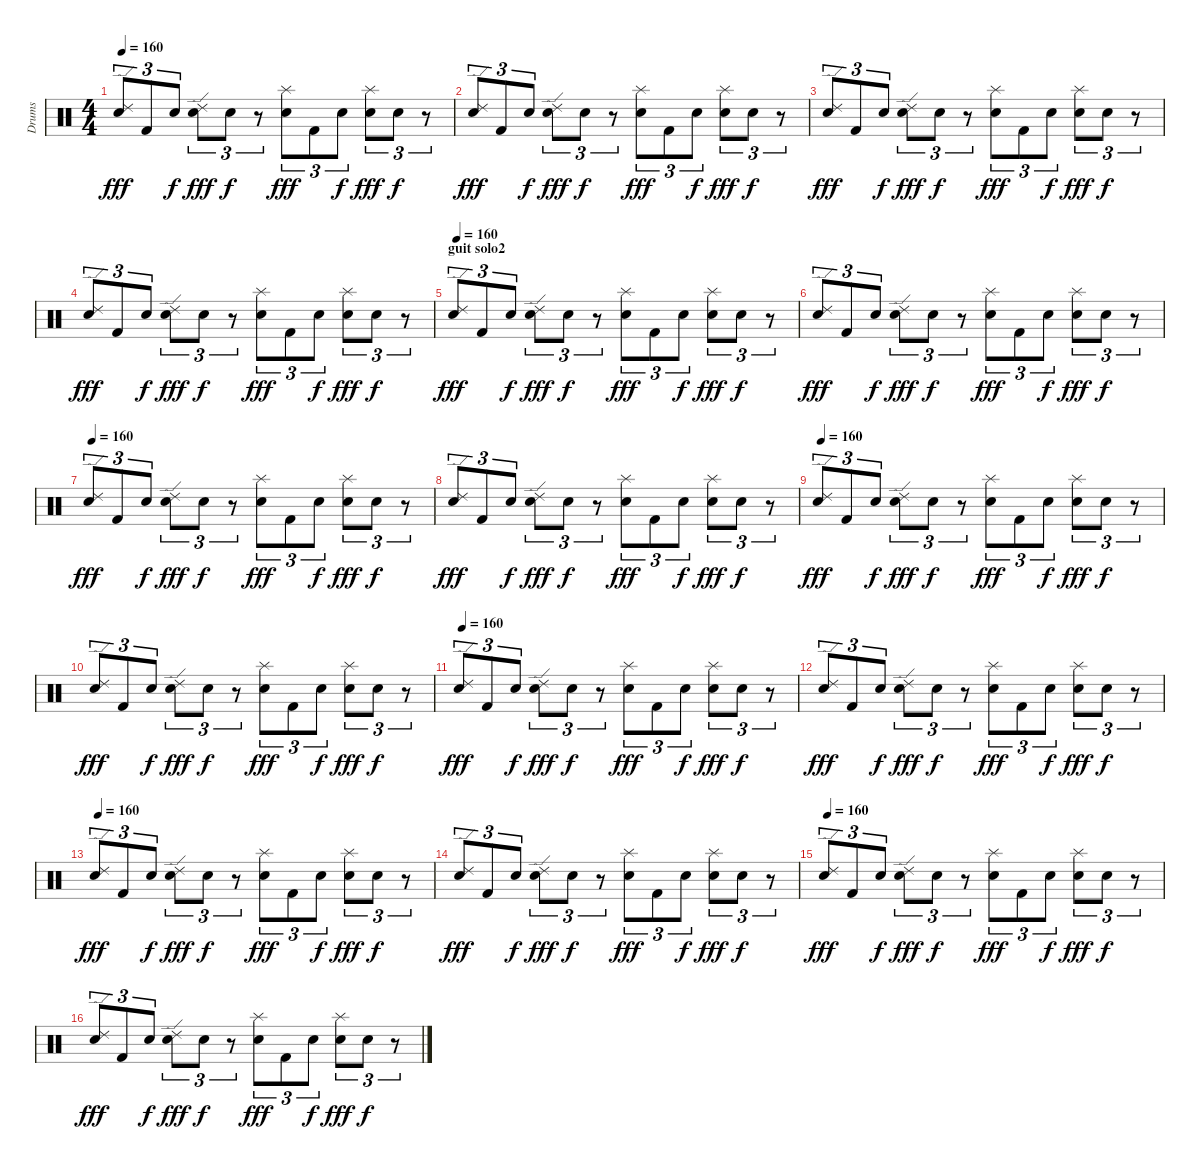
\track ("Drums" "Drums") {instrument percussion}
\staff {score}
\articulation defaults
\ts (4 4)
\tempo 160
\clef neutral
\ks c
("Ride (edge) 2" "Electric Snare (hit)").8{tu (3 2) dy fff} "Kick (hit) 2".8{tu (3 2)} "Electric Snare (hit)".8{tu (3 2) dy f} ("Ride (edge) 2" "Electric Snare (hit)").8{tu (3 2) dy fff} "Electric Snare (hit)".8{tu (3 2) dy f} r.8{tu (3 2)} ("Splash (hit)" "Snare (hit) 2").8{tu (3 2) dy fff} "Kick (hit) 2".8{tu (3 2)} "Snare (hit) 2".8{tu (3 2) dy f} ("Splash (hit)" "Snare (hit) 2").8{tu (3 2) dy fff} "Snare (hit) 2".8{tu (3 2) dy f} r.8{tu (3 2)} |
("Ride (edge) 2" "Electric Snare (hit)").8{tu (3 2) dy fff} "Kick (hit) 2".8{tu (3 2)} "Electric Snare (hit)".8{tu (3 2) dy f} ("Ride (edge) 2" "Electric Snare (hit)").8{tu (3 2) dy fff} "Electric Snare (hit)".8{tu (3 2) dy f} r.8{tu (3 2)} ("Splash (hit)" "Snare (hit) 2").8{tu (3 2) dy fff} "Kick (hit) 2".8{tu (3 2)} "Snare (hit) 2".8{tu (3 2) dy f} ("Splash (hit)" "Snare (hit) 2").8{tu (3 2) dy fff} "Snare (hit) 2".8{tu (3 2) dy f} r.8{tu (3 2)} |
("Ride (edge) 2" "Electric Snare (hit)").8{tu (3 2) dy fff} "Kick (hit) 2".8{tu (3 2)} "Electric Snare (hit)".8{tu (3 2) dy f} ("Ride (edge) 2" "Electric Snare (hit)").8{tu (3 2) dy fff} "Electric Snare (hit)".8{tu (3 2) dy f} r.8{tu (3 2)} ("Splash (hit)" "Snare (hit) 2").8{tu (3 2) dy fff} "Kick (hit) 2".8{tu (3 2)} "Snare (hit) 2".8{tu (3 2) dy f} ("Splash (hit)" "Snare (hit) 2").8{tu (3 2) dy fff} "Snare (hit) 2".8{tu (3 2) dy f} r.8{tu (3 2)} |
("Ride (edge) 2" "Electric Snare (hit)").8{tu (3 2) dy fff} "Kick (hit) 2".8{tu (3 2)} "Electric Snare (hit)".8{tu (3 2) dy f} ("Ride (edge) 2" "Electric Snare (hit)").8{tu (3 2) dy fff} "Electric Snare (hit)".8{tu (3 2) dy f} r.8{tu (3 2)} ("Splash (hit)" "Snare (hit) 2").8{tu (3 2) dy fff} "Kick (hit) 2".8{tu (3 2)} "Snare (hit) 2".8{tu (3 2) dy f} ("Splash (hit)" "Snare (hit) 2").8{tu (3 2) dy fff} "Snare (hit) 2".8{tu (3 2) dy f} r.8{tu (3 2)} |
\section ("" "guit solo2")
\tempo 160
("Ride (edge) 2" "Electric Snare (hit)").8{tu (3 2) dy fff} "Kick (hit) 2".8{tu (3 2)} "Electric Snare (hit)".8{tu (3 2) dy f} ("Ride (edge) 2" "Electric Snare (hit)").8{tu (3 2) dy fff} "Electric Snare (hit)".8{tu (3 2) dy f} r.8{tu (3 2)} ("Splash (hit)" "Snare (hit) 2").8{tu (3 2) dy fff} "Kick (hit) 2".8{tu (3 2)} "Snare (hit) 2".8{tu (3 2) dy f} ("Splash (hit)" "Snare (hit) 2").8{tu (3 2) dy fff} "Snare (hit) 2".8{tu (3 2) dy f} r.8{tu (3 2)} |
("Ride (edge) 2" "Electric Snare (hit)").8{tu (3 2) dy fff} "Kick (hit) 2".8{tu (3 2)} "Electric Snare (hit)".8{tu (3 2) dy f} ("Ride (edge) 2" "Electric Snare (hit)").8{tu (3 2) dy fff} "Electric Snare (hit)".8{tu (3 2) dy f} r.8{tu (3 2)} ("Splash (hit)" "Snare (hit) 2").8{tu (3 2) dy fff} "Kick (hit) 2".8{tu (3 2)} "Snare (hit) 2".8{tu (3 2) dy f} ("Splash (hit)" "Snare (hit) 2").8{tu (3 2) dy fff} "Snare (hit) 2".8{tu (3 2) dy f} r.8{tu (3 2)} |
\tempo 160
("Ride (edge) 2" "Electric Snare (hit)").8{tu (3 2) dy fff} "Kick (hit) 2".8{tu (3 2)} "Electric Snare (hit)".8{tu (3 2) dy f} ("Ride (edge) 2" "Electric Snare (hit)").8{tu (3 2) dy fff} "Electric Snare (hit)".8{tu (3 2) dy f} r.8{tu (3 2)} ("Splash (hit)" "Snare (hit) 2").8{tu (3 2) dy fff} "Kick (hit) 2".8{tu (3 2)} "Snare (hit) 2".8{tu (3 2) dy f} ("Splash (hit)" "Snare (hit) 2").8{tu (3 2) dy fff} "Snare (hit) 2".8{tu (3 2) dy f} r.8{tu (3 2)} |
("Ride (edge) 2" "Electric Snare (hit)").8{tu (3 2) dy fff} "Kick (hit) 2".8{tu (3 2)} "Electric Snare (hit)".8{tu (3 2) dy f} ("Ride (edge) 2" "Electric Snare (hit)").8{tu (3 2) dy fff} "Electric Snare (hit)".8{tu (3 2) dy f} r.8{tu (3 2)} ("Splash (hit)" "Snare (hit) 2").8{tu (3 2) dy fff} "Kick (hit) 2".8{tu (3 2)} "Snare (hit) 2".8{tu (3 2) dy f} ("Splash (hit)" "Snare (hit) 2").8{tu (3 2) dy fff} "Snare (hit) 2".8{tu (3 2) dy f} r.8{tu (3 2)} |
\tempo 160
("Ride (edge) 2" "Electric Snare (hit)").8{tu (3 2) dy fff} "Kick (hit) 2".8{tu (3 2)} "Electric Snare (hit)".8{tu (3 2) dy f} ("Ride (edge) 2" "Electric Snare (hit)").8{tu (3 2) dy fff} "Electric Snare (hit)".8{tu (3 2) dy f} r.8{tu (3 2)} ("Splash (hit)" "Snare (hit) 2").8{tu (3 2) dy fff} "Kick (hit) 2".8{tu (3 2)} "Snare (hit) 2".8{tu (3 2) dy f} ("Splash (hit)" "Snare (hit) 2").8{tu (3 2) dy fff} "Snare (hit) 2".8{tu (3 2) dy f} r.8{tu (3 2)} |
("Ride (edge) 2" "Electric Snare (hit)").8{tu (3 2) dy fff} "Kick (hit) 2".8{tu (3 2)} "Electric Snare (hit)".8{tu (3 2) dy f} ("Ride (edge) 2" "Electric Snare (hit)").8{tu (3 2) dy fff} "Electric Snare (hit)".8{tu (3 2) dy f} r.8{tu (3 2)} ("Splash (hit)" "Snare (hit) 2").8{tu (3 2) dy fff} "Kick (hit) 2".8{tu (3 2)} "Snare (hit) 2".8{tu (3 2) dy f} ("Splash (hit)" "Snare (hit) 2").8{tu (3 2) dy fff} "Snare (hit) 2".8{tu (3 2) dy f} r.8{tu (3 2)} |
\tempo 160
("Ride (edge) 2" "Electric Snare (hit)").8{tu (3 2) dy fff} "Kick (hit) 2".8{tu (3 2)} "Electric Snare (hit)".8{tu (3 2) dy f} ("Ride (edge) 2" "Electric Snare (hit)").8{tu (3 2) dy fff} "Electric Snare (hit)".8{tu (3 2) dy f} r.8{tu (3 2)} ("Splash (hit)" "Snare (hit) 2").8{tu (3 2) dy fff} "Kick (hit) 2".8{tu (3 2)} "Snare (hit) 2".8{tu (3 2) dy f} ("Splash (hit)" "Snare (hit) 2").8{tu (3 2) dy fff} "Snare (hit) 2".8{tu (3 2) dy f} r.8{tu (3 2)} |
("Ride (edge) 2" "Electric Snare (hit)").8{tu (3 2) dy fff} "Kick (hit) 2".8{tu (3 2)} "Electric Snare (hit)".8{tu (3 2) dy f} ("Ride (edge) 2" "Electric Snare (hit)").8{tu (3 2) dy fff} "Electric Snare (hit)".8{tu (3 2) dy f} r.8{tu (3 2)} ("Splash (hit)" "Snare (hit) 2").8{tu (3 2) dy fff} "Kick (hit) 2".8{tu (3 2)} "Snare (hit) 2".8{tu (3 2) dy f} ("Splash (hit)" "Snare (hit) 2").8{tu (3 2) dy fff} "Snare (hit) 2".8{tu (3 2) dy f} r.8{tu (3 2)} |
\tempo 160
("Ride (edge) 2" "Electric Snare (hit)").8{tu (3 2) dy fff} "Kick (hit) 2".8{tu (3 2)} "Electric Snare (hit)".8{tu (3 2) dy f} ("Ride (edge) 2" "Electric Snare (hit)").8{tu (3 2) dy fff} "Electric Snare (hit)".8{tu (3 2) dy f} r.8{tu (3 2)} ("Splash (hit)" "Snare (hit) 2").8{tu (3 2) dy fff} "Kick (hit) 2".8{tu (3 2)} "Snare (hit) 2".8{tu (3 2) dy f} ("Splash (hit)" "Snare (hit) 2").8{tu (3 2) dy fff} "Snare (hit) 2".8{tu (3 2) dy f} r.8{tu (3 2)} |
("Ride (edge) 2" "Electric Snare (hit)").8{tu (3 2) dy fff} "Kick (hit) 2".8{tu (3 2)} "Electric Snare (hit)".8{tu (3 2) dy f} ("Ride (edge) 2" "Electric Snare (hit)").8{tu (3 2) dy fff} "Electric Snare (hit)".8{tu (3 2) dy f} r.8{tu (3 2)} ("Splash (hit)" "Snare (hit) 2").8{tu (3 2) dy fff} "Kick (hit) 2".8{tu (3 2)} "Snare (hit) 2".8{tu (3 2) dy f} ("Splash (hit)" "Snare (hit) 2").8{tu (3 2) dy fff} "Snare (hit) 2".8{tu (3 2) dy f} r.8{tu (3 2)} |
\tempo 160
("Ride (edge) 2" "Electric Snare (hit)").8{tu (3 2) dy fff} "Kick (hit) 2".8{tu (3 2)} "Electric Snare (hit)".8{tu (3 2) dy f} ("Ride (edge) 2" "Electric Snare (hit)").8{tu (3 2) dy fff} "Electric Snare (hit)".8{tu (3 2) dy f} r.8{tu (3 2)} ("Splash (hit)" "Snare (hit) 2").8{tu (3 2) dy fff} "Kick (hit) 2".8{tu (3 2)} "Snare (hit) 2".8{tu (3 2) dy f} ("Splash (hit)" "Snare (hit) 2").8{tu (3 2) dy fff} "Snare (hit) 2".8{tu (3 2) dy f} r.8{tu (3 2)} |
("Ride (edge) 2" "Electric Snare (hit)").8{tu (3 2) dy fff} "Kick (hit) 2".8{tu (3 2)} "Electric Snare (hit)".8{tu (3 2) dy f} ("Ride (edge) 2" "Electric Snare (hit)").8{tu (3 2) dy fff} "Electric Snare (hit)".8{tu (3 2) dy f} r.8{tu (3 2)} ("Splash (hit)" "Snare (hit) 2").8{tu (3 2) dy fff} "Kick (hit) 2".8{tu (3 2)} "Snare (hit) 2".8{tu (3 2) dy f} ("Splash (hit)" "Snare (hit) 2").8{tu (3 2) dy fff} "Snare (hit) 2".8{tu (3 2) dy f} r.8{tu (3 2)}
